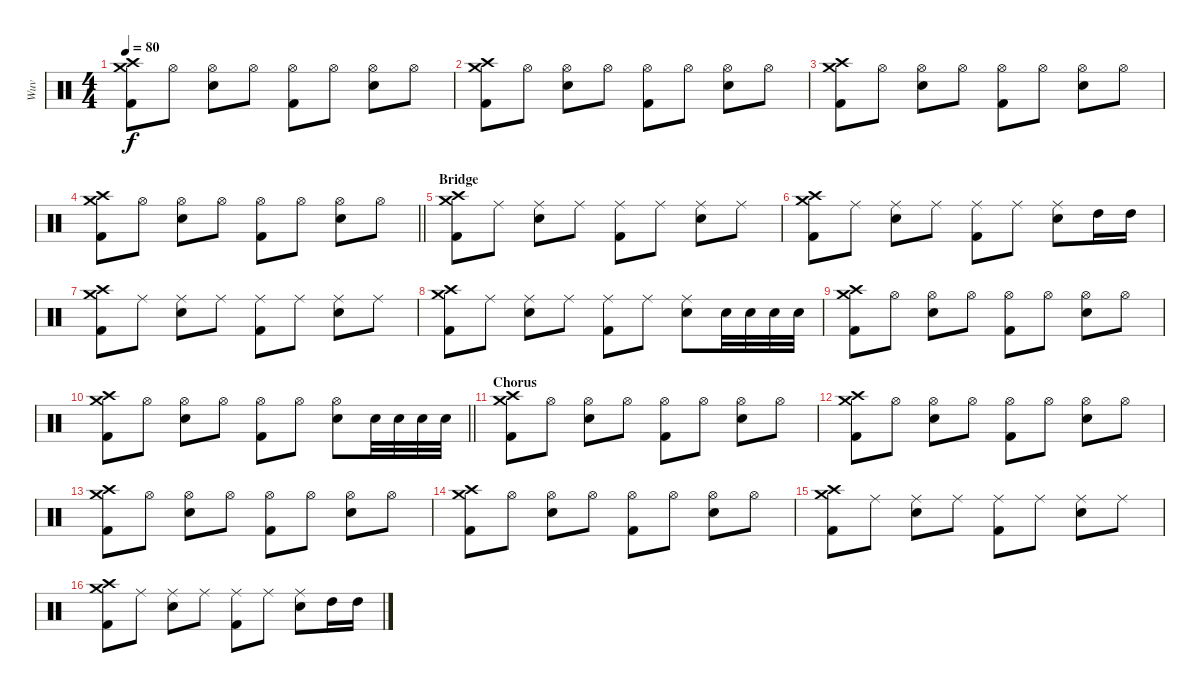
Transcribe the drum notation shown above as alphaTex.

\track ("Wuv" "Wuv") {instrument percussion}
\staff {score}
\articulation defaults
\ts (4 4)
\tempo 80
\clef neutral
\ks c
("Crash high (hit)" "Crash medium (hit)" "Kick (hit) 2").8{dy f} "Hi-Hat (open)".8 ("Hi-Hat (open)" "Electric Snare (hit)").8 "Hi-Hat (open)".8 ("Hi-Hat (open)" "Kick (hit) 2").8 "Hi-Hat (open)".8 ("Hi-Hat (open)" "Electric Snare (hit)").8 "Hi-Hat (open)".8 |
("Crash high (hit)" "Crash medium (hit)" "Kick (hit) 2").8 "Hi-Hat (open)".8 ("Hi-Hat (open)" "Electric Snare (hit)").8 "Hi-Hat (open)".8 ("Hi-Hat (open)" "Kick (hit) 2").8 "Hi-Hat (open)".8 ("Hi-Hat (open)" "Electric Snare (hit)").8 "Hi-Hat (open)".8 |
("Crash high (hit)" "Crash medium (hit)" "Kick (hit) 2").8 "Hi-Hat (open)".8 ("Hi-Hat (open)" "Electric Snare (hit)").8 "Hi-Hat (open)".8 ("Hi-Hat (open)" "Kick (hit) 2").8 "Hi-Hat (open)".8 ("Hi-Hat (open)" "Electric Snare (hit)").8 "Hi-Hat (open)".8 |
\barLineRight lightlight
("Crash high (hit)" "Crash medium (hit)" "Kick (hit) 2").8 "Hi-Hat (open)".8 ("Hi-Hat (open)" "Electric Snare (hit)").8 "Hi-Hat (open)".8 ("Hi-Hat (open)" "Kick (hit) 2").8 "Hi-Hat (open)".8 ("Hi-Hat (open)" "Electric Snare (hit)").8 "Hi-Hat (open)".8 |
\section ("" "Bridge")
("Crash high (hit)" "Crash medium (hit)" "Kick (hit) 2").8 "Ride (middle)".8 ("Ride (middle)" "Electric Snare (hit)").8 "Ride (middle)".8 ("Ride (middle)" "Kick (hit) 2").8 "Ride (middle)".8 ("Ride (middle)" "Electric Snare (hit)").8 "Ride (middle)".8 |
("Crash high (hit)" "Crash medium (hit)" "Kick (hit) 2").8 "Ride (middle)".8 ("Ride (middle)" "Electric Snare (hit)").8 "Ride (middle)".8 ("Ride (middle)" "Kick (hit) 2").8 "Ride (middle)".8 ("Ride (middle)" "Electric Snare (hit)").8 "High Tom (hit)".16 "High Tom (hit)".16 |
("Crash high (hit)" "Crash medium (hit)" "Kick (hit) 2").8 "Ride (middle)".8 ("Ride (middle)" "Electric Snare (hit)").8 "Ride (middle)".8 ("Ride (middle)" "Kick (hit) 2").8 "Ride (middle)".8 ("Ride (middle)" "Electric Snare (hit)").8 "Ride (middle)".8 |
("Crash high (hit)" "Crash medium (hit)" "Kick (hit) 2").8 "Ride (middle)".8 ("Ride (middle)" "Electric Snare (hit)").8 "Ride (middle)".8 ("Ride (middle)" "Kick (hit) 2").8 "Ride (middle)".8 ("Ride (middle)" "Electric Snare (hit)").8 "Electric Snare (hit)".32 "Electric Snare (hit)".32 "Electric Snare (hit)".32 "Electric Snare (hit)".32 |
("Crash high (hit)" "Crash medium (hit)" "Kick (hit) 2").8 "Hi-Hat (open)".8 ("Hi-Hat (open)" "Electric Snare (hit)").8 "Hi-Hat (open)".8 ("Hi-Hat (open)" "Kick (hit) 2").8 "Hi-Hat (open)".8 ("Hi-Hat (open)" "Electric Snare (hit)").8 "Hi-Hat (open)".8 |
\barLineRight lightlight
("Crash high (hit)" "Crash medium (hit)" "Kick (hit) 2").8 "Hi-Hat (open)".8 ("Hi-Hat (open)" "Electric Snare (hit)").8 "Hi-Hat (open)".8 ("Hi-Hat (open)" "Kick (hit) 2").8 "Hi-Hat (open)".8 ("Hi-Hat (open)" "Electric Snare (hit)").8 "Electric Snare (hit)".32 "Electric Snare (hit)".32 "Electric Snare (hit)".32 "Electric Snare (hit)".32 |
\section ("" "Chorus")
("Crash high (hit)" "Crash medium (hit)" "Kick (hit) 2").8 "Hi-Hat (open)".8 ("Hi-Hat (open)" "Electric Snare (hit)").8 "Hi-Hat (open)".8 ("Hi-Hat (open)" "Kick (hit) 2").8 "Hi-Hat (open)".8 ("Hi-Hat (open)" "Electric Snare (hit)").8 "Hi-Hat (open)".8 |
("Crash high (hit)" "Crash medium (hit)" "Kick (hit) 2").8 "Hi-Hat (open)".8 ("Hi-Hat (open)" "Electric Snare (hit)").8 "Hi-Hat (open)".8 ("Hi-Hat (open)" "Kick (hit) 2").8 "Hi-Hat (open)".8 ("Hi-Hat (open)" "Electric Snare (hit)").8 "Hi-Hat (open)".8 |
("Crash high (hit)" "Crash medium (hit)" "Kick (hit) 2").8 "Hi-Hat (open)".8 ("Hi-Hat (open)" "Electric Snare (hit)").8 "Hi-Hat (open)".8 ("Hi-Hat (open)" "Kick (hit) 2").8 "Hi-Hat (open)".8 ("Hi-Hat (open)" "Electric Snare (hit)").8 "Hi-Hat (open)".8 |
("Crash high (hit)" "Crash medium (hit)" "Kick (hit) 2").8 "Hi-Hat (open)".8 ("Hi-Hat (open)" "Electric Snare (hit)").8 "Hi-Hat (open)".8 ("Hi-Hat (open)" "Kick (hit) 2").8 "Hi-Hat (open)".8 ("Hi-Hat (open)" "Electric Snare (hit)").8 "Hi-Hat (open)".8 |
("Crash high (hit)" "Crash medium (hit)" "Kick (hit) 2").8 "Ride (middle)".8 ("Ride (middle)" "Electric Snare (hit)").8 "Ride (middle)".8 ("Ride (middle)" "Kick (hit) 2").8 "Ride (middle)".8 ("Ride (middle)" "Electric Snare (hit)").8 "Ride (middle)".8 |
("Crash high (hit)" "Crash medium (hit)" "Kick (hit) 2").8 "Ride (middle)".8 ("Ride (middle)" "Electric Snare (hit)").8 "Ride (middle)".8 ("Ride (middle)" "Kick (hit) 2").8 "Ride (middle)".8 ("Ride (middle)" "Electric Snare (hit)").8 "High Tom (hit)".16 "High Tom (hit)".16
